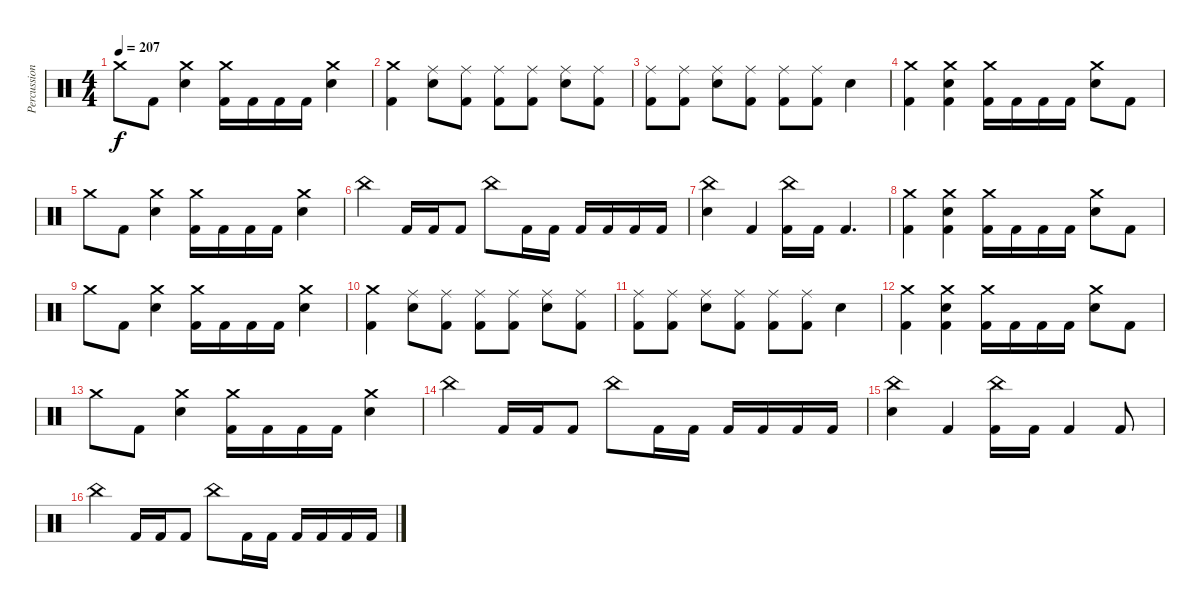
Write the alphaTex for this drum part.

\track ("Percussion" "Percussion") {instrument percussion}
\staff {score}
\articulation defaults
\ts (4 4)
\tempo 207
\clef neutral
\ks c "Crash medium (hit)".8{dy f} "Kick (hit) 2".8
("Crash medium (hit)" "Electric Snare (hit)").4 ("Crash medium (hit)" "Kick (hit) 2").16 "Kick (hit) 2".16 "Kick (hit) 2".16 "Kick (hit) 2".16 ("Crash medium (hit)" "Electric Snare (hit)").4 |
("Crash medium (hit)" "Kick (hit) 2").4 ("Ride (middle)" "Electric Snare (hit)").8 ("Ride (middle)" "Kick (hit) 2").8 ("Ride (middle)" "Kick (hit) 2").8 ("Ride (middle)" "Kick (hit) 2").8 ("Ride (middle)" "Electric Snare (hit)").8 ("Ride (middle)" "Kick (hit) 2").8 |
("Ride (middle)" "Kick (hit) 2").8 ("Ride (middle)" "Kick (hit) 2").8 ("Ride (middle)" "Electric Snare (hit)").8 ("Ride (middle)" "Kick (hit) 2").8 ("Ride (middle)" "Kick (hit) 2").8 ("Ride (middle)" "Kick (hit) 2").8 "Electric Snare (hit)".4 |
("Crash medium (hit)" "Kick (hit) 2").4 ("Crash medium (hit)" "Electric Snare (hit)" "Kick (hit) 2").4 ("Crash medium (hit)" "Kick (hit) 2").16 "Kick (hit) 2".16 "Kick (hit) 2".16 "Kick (hit) 2".16 ("Crash medium (hit)" "Electric Snare (hit)").8 "Kick (hit) 2".8 |
"Crash medium (hit)".8 "Kick (hit) 2".8 ("Crash medium (hit)" "Electric Snare (hit)").4 ("Crash medium (hit)" "Kick (hit) 2").16 "Kick (hit) 2".16 "Kick (hit) 2".16 "Kick (hit) 2".16 ("Crash medium (hit)" "Electric Snare (hit)").4 |
"China (hit)".4 "Kick (hit) 2".16 "Kick (hit) 2".16 "Kick (hit) 2".8 "China (hit)".8 "Kick (hit) 2".16 "Kick (hit) 2".16 "Kick (hit) 2".16 "Kick (hit) 2".16 "Kick (hit) 2".16 "Kick (hit) 2".16 |
("China (hit)" "Electric Snare (hit)").4 "Kick (hit) 2".4 ("China (hit)" "Kick (hit) 2").16 "Kick (hit) 2".16 "Kick (hit) 2".4{d} |
("Crash medium (hit)" "Kick (hit) 2").4 ("Crash medium (hit)" "Electric Snare (hit)" "Kick (hit) 2").4 ("Crash medium (hit)" "Kick (hit) 2").16 "Kick (hit) 2".16 "Kick (hit) 2".16 "Kick (hit) 2".16 ("Crash medium (hit)" "Electric Snare (hit)").8 "Kick (hit) 2".8 |
"Crash medium (hit)".8 "Kick (hit) 2".8 ("Crash medium (hit)" "Electric Snare (hit)").4 ("Crash medium (hit)" "Kick (hit) 2").16 "Kick (hit) 2".16 "Kick (hit) 2".16 "Kick (hit) 2".16 ("Crash medium (hit)" "Electric Snare (hit)").4 |
("Crash medium (hit)" "Kick (hit) 2").4 ("Ride (middle)" "Electric Snare (hit)").8 ("Ride (middle)" "Kick (hit) 2").8 ("Ride (middle)" "Kick (hit) 2").8 ("Ride (middle)" "Kick (hit) 2").8 ("Ride (middle)" "Electric Snare (hit)").8 ("Ride (middle)" "Kick (hit) 2").8 |
("Ride (middle)" "Kick (hit) 2").8 ("Ride (middle)" "Kick (hit) 2").8 ("Ride (middle)" "Electric Snare (hit)").8 ("Ride (middle)" "Kick (hit) 2").8 ("Ride (middle)" "Kick (hit) 2").8 ("Ride (middle)" "Kick (hit) 2").8 "Electric Snare (hit)".4 |
("Crash medium (hit)" "Kick (hit) 2").4 ("Crash medium (hit)" "Electric Snare (hit)" "Kick (hit) 2").4 ("Crash medium (hit)" "Kick (hit) 2").16 "Kick (hit) 2".16 "Kick (hit) 2".16 "Kick (hit) 2".16 ("Crash medium (hit)" "Electric Snare (hit)").8 "Kick (hit) 2".8 |
"Crash medium (hit)".8 "Kick (hit) 2".8 ("Crash medium (hit)" "Electric Snare (hit)").4 ("Crash medium (hit)" "Kick (hit) 2").16 "Kick (hit) 2".16 "Kick (hit) 2".16 "Kick (hit) 2".16 ("Crash medium (hit)" "Electric Snare (hit)").4 |
"China (hit)".4 "Kick (hit) 2".16 "Kick (hit) 2".16 "Kick (hit) 2".8 "China (hit)".8 "Kick (hit) 2".16 "Kick (hit) 2".16 "Kick (hit) 2".16 "Kick (hit) 2".16 "Kick (hit) 2".16 "Kick (hit) 2".16 |
("China (hit)" "Electric Snare (hit)").4 "Kick (hit) 2".4 ("China (hit)" "Kick (hit) 2").16 "Kick (hit) 2".16 "Kick (hit) 2".4 "Kick (hit) 2".8 |
"China (hit)".4 "Kick (hit) 2".16 "Kick (hit) 2".16 "Kick (hit) 2".8 "China (hit)".8 "Kick (hit) 2".16 "Kick (hit) 2".16 "Kick (hit) 2".16 "Kick (hit) 2".16 "Kick (hit) 2".16 "Kick (hit) 2".16
